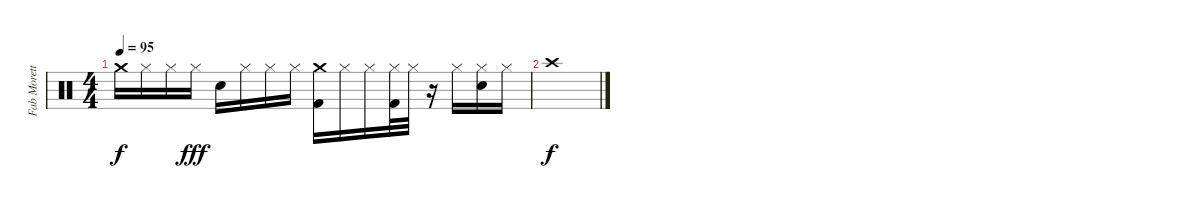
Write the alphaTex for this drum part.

\track ("Fab Moretti" "Fab Morett") {instrument percussion}
\staff {score}
\articulation defaults
\ts (4 4)
\tempo 95
\clef neutral
\ks c "Crash medium (hit)".16{dy f} "Hi-Hat (closed)".16 "Hi-Hat (closed)".16 "Hi-Hat (closed)".16{dy fff} "Electric Snare (hit)".16 "Hi-Hat (closed)".16 "Hi-Hat (closed)".16 "Hi-Hat (closed)".16
("Crash medium (hit)" "Kick (hit) 2").16 "Hi-Hat (closed)".16 "Hi-Hat (closed)".16 ("Hi-Hat (closed)" "Kick (hit) 2").32 "Hi-Hat (closed)".32 r.16 "Hi-Hat (closed)".16 ("Hi-Hat (closed)" "Electric Snare (hit)").16 "Hi-Hat (closed)".16 |
"Crash high (hit)".1{dy f}
